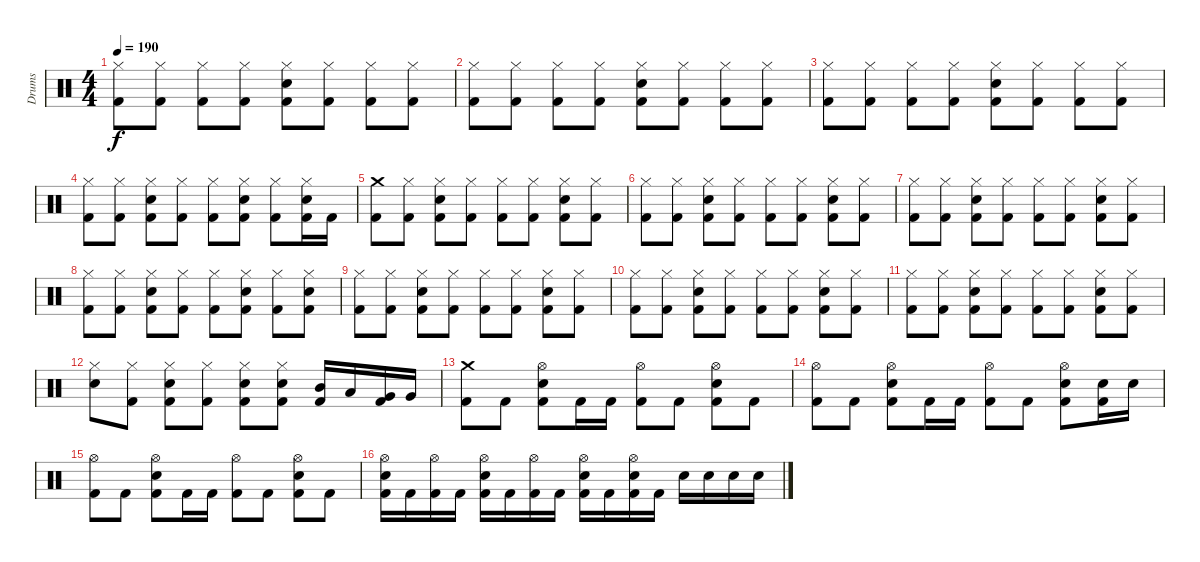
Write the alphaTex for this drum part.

\track ("Drums" "Drums") {instrument percussion}
\staff {score}
\articulation defaults
\ts (4 4)
\tempo 190
\clef neutral
\ks c
("Hi-Hat (closed)" "Kick (hit) 2").8{dy f} ("Hi-Hat (closed)" "Kick (hit) 2").8 ("Hi-Hat (closed)" "Kick (hit) 2").8 ("Hi-Hat (closed)" "Kick (hit) 2").8 ("Kick (hit) 2" "Hi-Hat (closed)" "Snare (hit) 2").8 ("Hi-Hat (closed)" "Kick (hit) 2").8 ("Hi-Hat (closed)" "Kick (hit) 2").8 ("Hi-Hat (closed)" "Kick (hit) 2").8 |
("Hi-Hat (closed)" "Kick (hit) 2").8 ("Hi-Hat (closed)" "Kick (hit) 2").8 ("Hi-Hat (closed)" "Kick (hit) 2").8 ("Hi-Hat (closed)" "Kick (hit) 2").8 ("Kick (hit) 2" "Hi-Hat (closed)" "Snare (hit) 2").8 ("Hi-Hat (closed)" "Kick (hit) 2").8 ("Hi-Hat (closed)" "Kick (hit) 2").8 ("Hi-Hat (closed)" "Kick (hit) 2").8 |
("Hi-Hat (closed)" "Kick (hit) 2").8 ("Hi-Hat (closed)" "Kick (hit) 2").8 ("Hi-Hat (closed)" "Kick (hit) 2").8 ("Hi-Hat (closed)" "Kick (hit) 2").8 ("Kick (hit) 2" "Hi-Hat (closed)" "Snare (hit) 2").8 ("Hi-Hat (closed)" "Kick (hit) 2").8 ("Hi-Hat (closed)" "Kick (hit) 2").8 ("Hi-Hat (closed)" "Kick (hit) 2").8 |
("Hi-Hat (closed)" "Kick (hit) 2").8 ("Hi-Hat (closed)" "Kick (hit) 2").8 ("Kick (hit) 2" "Hi-Hat (closed)" "Snare (hit) 2").8 ("Hi-Hat (closed)" "Kick (hit) 2").8 ("Hi-Hat (closed)" "Kick (hit) 2").8 ("Kick (hit) 2" "Hi-Hat (closed)" "Snare (hit) 2").8 ("Hi-Hat (closed)" "Kick (hit) 2").8 ("Kick (hit) 2" "Hi-Hat (closed)" "Snare (hit) 2").16 "Kick (hit) 2".16 |
("Crash medium (hit)" "Kick (hit) 2").8 ("Hi-Hat (closed)" "Kick (hit) 2").8 ("Kick (hit) 2" "Hi-Hat (closed)" "Snare (hit) 2").8 ("Hi-Hat (closed)" "Kick (hit) 2").8 ("Hi-Hat (closed)" "Kick (hit) 2").8 ("Hi-Hat (closed)" "Kick (hit) 2").8 ("Kick (hit) 2" "Hi-Hat (closed)" "Snare (hit) 2").8 ("Hi-Hat (closed)" "Kick (hit) 2").8 |
("Hi-Hat (closed)" "Kick (hit) 2").8 ("Hi-Hat (closed)" "Kick (hit) 2").8 ("Kick (hit) 2" "Hi-Hat (closed)" "Snare (hit) 2").8 ("Hi-Hat (closed)" "Kick (hit) 2").8 ("Hi-Hat (closed)" "Kick (hit) 2").8 ("Hi-Hat (closed)" "Kick (hit) 2").8 ("Kick (hit) 2" "Hi-Hat (closed)" "Snare (hit) 2").8 ("Hi-Hat (closed)" "Kick (hit) 2").8 |
("Hi-Hat (closed)" "Kick (hit) 2").8 ("Hi-Hat (closed)" "Kick (hit) 2").8 ("Kick (hit) 2" "Hi-Hat (closed)" "Snare (hit) 2").8 ("Hi-Hat (closed)" "Kick (hit) 2").8 ("Hi-Hat (closed)" "Kick (hit) 2").8 ("Hi-Hat (closed)" "Kick (hit) 2").8 ("Kick (hit) 2" "Hi-Hat (closed)" "Snare (hit) 2").8 ("Hi-Hat (closed)" "Kick (hit) 2").8 |
("Hi-Hat (closed)" "Kick (hit) 2").8 ("Hi-Hat (closed)" "Kick (hit) 2").8 ("Kick (hit) 2" "Hi-Hat (closed)" "Snare (hit) 2").8 ("Hi-Hat (closed)" "Kick (hit) 2").8 ("Hi-Hat (closed)" "Kick (hit) 2").8 ("Kick (hit) 2" "Hi-Hat (closed)" "Snare (hit) 2").8 ("Hi-Hat (closed)" "Kick (hit) 2").8 ("Kick (hit) 2" "Hi-Hat (closed)" "Snare (hit) 2").8 |
("Hi-Hat (closed)" "Kick (hit) 2").8 ("Hi-Hat (closed)" "Kick (hit) 2").8 ("Kick (hit) 2" "Hi-Hat (closed)" "Snare (hit) 2").8 ("Hi-Hat (closed)" "Kick (hit) 2").8 ("Hi-Hat (closed)" "Kick (hit) 2").8 ("Hi-Hat (closed)" "Kick (hit) 2").8 ("Kick (hit) 2" "Hi-Hat (closed)" "Snare (hit) 2").8 ("Hi-Hat (closed)" "Kick (hit) 2").8 |
("Hi-Hat (closed)" "Kick (hit) 2").8 ("Hi-Hat (closed)" "Kick (hit) 2").8 ("Kick (hit) 2" "Hi-Hat (closed)" "Snare (hit) 2").8 ("Hi-Hat (closed)" "Kick (hit) 2").8 ("Hi-Hat (closed)" "Kick (hit) 2").8 ("Hi-Hat (closed)" "Kick (hit) 2").8 ("Kick (hit) 2" "Hi-Hat (closed)" "Snare (hit) 2").8 ("Hi-Hat (closed)" "Kick (hit) 2").8 |
("Hi-Hat (closed)" "Kick (hit) 2").8 ("Hi-Hat (closed)" "Kick (hit) 2").8 ("Kick (hit) 2" "Hi-Hat (closed)" "Snare (hit) 2").8 ("Hi-Hat (closed)" "Kick (hit) 2").8 ("Hi-Hat (closed)" "Kick (hit) 2").8 ("Hi-Hat (closed)" "Kick (hit) 2").8 ("Kick (hit) 2" "Hi-Hat (closed)" "Snare (hit) 2").8 ("Hi-Hat (closed)" "Kick (hit) 2").8 |
("Hi-Hat (closed)" "Snare (hit) 2").8 ("Hi-Hat (closed)" "Kick (hit) 2").8 ("Kick (hit) 2" "Hi-Hat (closed)" "Snare (hit) 2").8 ("Hi-Hat (closed)" "Kick (hit) 2").8 ("Kick (hit) 2" "Hi-Hat (closed)" "Snare (hit) 2").8 ("Kick (hit) 2" "Hi-Hat (closed)" "Snare (hit) 2").8 ("Kick (hit) 2" "Mid Tom (hit)").16 "Low Tom (hit)".16 ("Kick (hit) 2" "Very Low Tom (hit)").16 "Very Low Tom (hit)".16 |
("Crash medium (hit)" "Kick (hit) 2").8 "Kick (hit) 2".8 ("Kick (hit) 2" "Hi-Hat (open)" "Snare (hit) 2").8 "Kick (hit) 2".16 "Kick (hit) 2".16 ("Hi-Hat (open)" "Kick (hit) 2").8 "Kick (hit) 2".8 ("Kick (hit) 2" "Hi-Hat (open)" "Snare (hit) 2").8 "Kick (hit) 2".8 |
("Hi-Hat (open)" "Kick (hit) 2").8 "Kick (hit) 2".8 ("Kick (hit) 2" "Hi-Hat (open)" "Snare (hit) 2").8 "Kick (hit) 2".16 "Kick (hit) 2".16 ("Hi-Hat (open)" "Kick (hit) 2").8 "Kick (hit) 2".8 ("Kick (hit) 2" "Hi-Hat (open)" "Snare (hit) 2").8 ("Kick (hit) 2" "Snare (hit) 2").16 "Snare (hit) 2".16 |
("Hi-Hat (open)" "Kick (hit) 2").8 "Kick (hit) 2".8 ("Kick (hit) 2" "Hi-Hat (open)" "Snare (hit) 2").8 "Kick (hit) 2".16 "Kick (hit) 2".16 ("Hi-Hat (open)" "Kick (hit) 2").8 "Kick (hit) 2".8 ("Kick (hit) 2" "Hi-Hat (open)" "Snare (hit) 2").8 "Kick (hit) 2".8 |
("Kick (hit) 2" "Hi-Hat (open)" "Snare (hit) 2").16 "Kick (hit) 2".16 ("Hi-Hat (open)" "Kick (hit) 2").16 "Kick (hit) 2".16 ("Kick (hit) 2" "Hi-Hat (open)" "Snare (hit) 2").16 "Kick (hit) 2".16 ("Hi-Hat (open)" "Kick (hit) 2").16 "Kick (hit) 2".16 ("Kick (hit) 2" "Hi-Hat (open)" "Snare (hit) 2").16 "Kick (hit) 2".16 ("Kick (hit) 2" "Hi-Hat (open)" "Snare (hit) 2").16 "Kick (hit) 2".16 "Snare (hit) 2".16 "Snare (hit) 2".16 "Snare (hit) 2".16 "Snare (hit) 2".16
